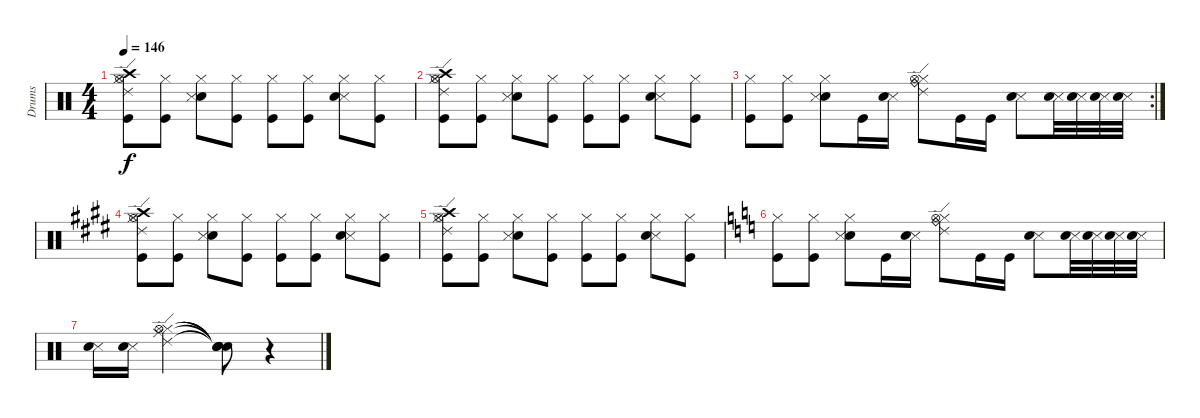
\track ("Drums" "Drums") {instrument percussion}
\staff {score}
\articulation defaults
\ts (4 4)
\tempo 146
\clef neutral
\ks c
("Kick (hit)" "Hi-Hat (closed)" "Hi-Hat (open)" "Crash high (hit)" "Ride (edge) 2").8{dy f} ("Hi-Hat (closed)" "Kick (hit)").8 ("Hi-Hat (closed)" "Electric Snare (hit)" "Snare (side stick) 3").8 ("Hi-Hat (closed)" "Kick (hit)").8 ("Hi-Hat (closed)" "Kick (hit)").8 ("Kick (hit)" "Hi-Hat (closed)").8 ("Hi-Hat (closed)" "Snare (side stick) 3" "Electric Snare (hit)").8 ("Hi-Hat (closed)" "Kick (hit)").8 |
("Kick (hit)" "Hi-Hat (closed)" "Hi-Hat (open)" "Crash high (hit)" "Ride (edge) 2").8 ("Hi-Hat (closed)" "Kick (hit)").8 ("Hi-Hat (closed)" "Electric Snare (hit)" "Snare (side stick) 3").8 ("Hi-Hat (closed)" "Kick (hit)").8 ("Hi-Hat (closed)" "Kick (hit)").8 ("Kick (hit)" "Hi-Hat (closed)").8 ("Hi-Hat (closed)" "Snare (side stick) 3" "Electric Snare (hit)").8 ("Hi-Hat (closed)" "Kick (hit)").8 |
\rc 2
("Hi-Hat (closed)" "Kick (hit)").8 ("Hi-Hat (closed)" "Kick (hit)").8 ("Hi-Hat (closed)" "Electric Snare (hit)" "Snare (side stick) 3").8 "Kick (hit)".16 ("Snare (side stick) 3" "Electric Snare (hit)").16 ("Hi-Hat (closed)" "Hi-Hat (open)" "Ride (bell)" "Ride (edge) 2").8 "Kick (hit)".16 "Kick (hit)".16 ("Snare (side stick) 3" "Electric Snare (hit)").8 ("Snare (side stick) 3" "Electric Snare (hit)").32 ("Snare (side stick) 3" "Electric Snare (hit)").32 ("Snare (side stick) 3" "Electric Snare (hit)").32 ("Snare (side stick) 3" "Electric Snare (hit)").32 |
\ks c#minor
("Kick (hit)" "Hi-Hat (closed)" "Hi-Hat (open)" "Crash high (hit)" "Ride (edge) 2").8 ("Hi-Hat (closed)" "Kick (hit)").8 ("Hi-Hat (closed)" "Electric Snare (hit)" "Snare (side stick) 3").8 ("Hi-Hat (closed)" "Kick (hit)").8 ("Hi-Hat (closed)" "Kick (hit)").8 ("Kick (hit)" "Hi-Hat (closed)").8 ("Hi-Hat (closed)" "Snare (side stick) 3" "Electric Snare (hit)").8 ("Hi-Hat (closed)" "Kick (hit)").8 |
("Kick (hit)" "Hi-Hat (closed)" "Hi-Hat (open)" "Crash high (hit)" "Ride (edge) 2").8 ("Hi-Hat (closed)" "Kick (hit)").8 ("Hi-Hat (closed)" "Electric Snare (hit)" "Snare (side stick) 3").8 ("Hi-Hat (closed)" "Kick (hit)").8 ("Hi-Hat (closed)" "Kick (hit)").8 ("Kick (hit)" "Hi-Hat (closed)").8 ("Hi-Hat (closed)" "Snare (side stick) 3" "Electric Snare (hit)").8 ("Hi-Hat (closed)" "Kick (hit)").8 |
\ks c
("Hi-Hat (closed)" "Kick (hit)").8 ("Hi-Hat (closed)" "Kick (hit)").8 ("Hi-Hat (closed)" "Electric Snare (hit)" "Snare (side stick) 3").8 "Kick (hit)".16 ("Snare (side stick) 3" "Electric Snare (hit)").16 ("Hi-Hat (closed)" "Hi-Hat (open)" "Ride (bell)" "Ride (edge) 2").8 "Kick (hit)".16 "Kick (hit)".16 ("Snare (side stick) 3" "Electric Snare (hit)").8 ("Snare (side stick) 3" "Electric Snare (hit)").32 ("Snare (side stick) 3" "Electric Snare (hit)").32 ("Snare (side stick) 3" "Electric Snare (hit)").32 ("Snare (side stick) 3" "Electric Snare (hit)").32 |
("Snare (side stick) 3" "Electric Snare (hit)").16 ("Snare (side stick) 3" "Electric Snare (hit)").16 ("Hi-Hat (closed)" "Hi-Hat (open)" "Ride (middle)" "Ride (edge) 2").2 ("Snare (hit)"{t} "Snare (hit)"{t} "Snare (hit)"{t} "Snare (hit)"{t}).8 r.4
